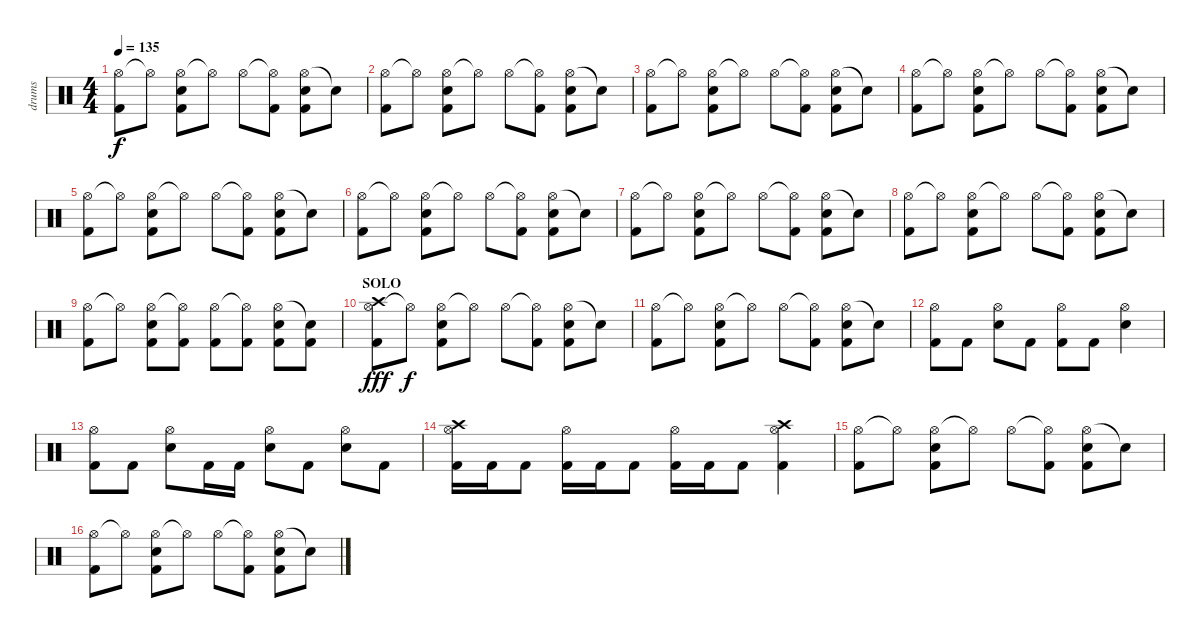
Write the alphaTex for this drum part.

\track ("drums" "drums") {instrument percussion}
\staff {score}
\articulation defaults
\ts (4 4)
\tempo 135
\clef neutral
\ks c
("Hi-Hat (open)" "Kick (hit) 2").8{dy f} "Hi-Hat (open)"{t}.8 ("Hi-Hat (open)" "Electric Snare (hit)" "Kick (hit) 2").8 "Hi-Hat (open)"{t}.8 "Hi-Hat (open)".8 ("Hi-Hat (open)"{t} "Kick (hit) 2").8 ("Hi-Hat (open)" "Electric Snare (hit)" "Kick (hit) 2").8 "Snare (hit)"{t}.8 |
("Hi-Hat (open)" "Kick (hit) 2").8 "Hi-Hat (open)"{t}.8 ("Hi-Hat (open)" "Electric Snare (hit)" "Kick (hit) 2").8 "Hi-Hat (open)"{t}.8 "Hi-Hat (open)".8 ("Hi-Hat (open)"{t} "Kick (hit) 2").8 ("Hi-Hat (open)" "Electric Snare (hit)" "Kick (hit) 2").8 "Snare (hit)"{t}.8 |
("Hi-Hat (open)" "Kick (hit) 2").8 "Hi-Hat (open)"{t}.8 ("Hi-Hat (open)" "Electric Snare (hit)" "Kick (hit) 2").8 "Hi-Hat (open)"{t}.8 "Hi-Hat (open)".8 ("Hi-Hat (open)"{t} "Kick (hit) 2").8 ("Hi-Hat (open)" "Electric Snare (hit)" "Kick (hit) 2").8 "Snare (hit)"{t}.8 |
("Hi-Hat (open)" "Kick (hit) 2").8 "Hi-Hat (open)"{t}.8 ("Hi-Hat (open)" "Electric Snare (hit)" "Kick (hit) 2").8 "Hi-Hat (open)"{t}.8 "Hi-Hat (open)".8 ("Hi-Hat (open)"{t} "Kick (hit) 2").8 ("Hi-Hat (open)" "Electric Snare (hit)" "Kick (hit) 2").8 "Snare (hit)"{t}.8 |
("Hi-Hat (open)" "Kick (hit) 2").8 "Hi-Hat (open)"{t}.8 ("Hi-Hat (open)" "Electric Snare (hit)" "Kick (hit) 2").8 "Hi-Hat (open)"{t}.8 "Hi-Hat (open)".8 ("Hi-Hat (open)"{t} "Kick (hit) 2").8 ("Hi-Hat (open)" "Electric Snare (hit)" "Kick (hit) 2").8 "Snare (hit)"{t}.8 |
("Hi-Hat (open)" "Kick (hit) 2").8 "Hi-Hat (open)"{t}.8 ("Hi-Hat (open)" "Electric Snare (hit)" "Kick (hit) 2").8 "Hi-Hat (open)"{t}.8 "Hi-Hat (open)".8 ("Hi-Hat (open)"{t} "Kick (hit) 2").8 ("Hi-Hat (open)" "Electric Snare (hit)" "Kick (hit) 2").8 "Snare (hit)"{t}.8 |
("Hi-Hat (open)" "Kick (hit) 2").8 "Hi-Hat (open)"{t}.8 ("Hi-Hat (open)" "Electric Snare (hit)" "Kick (hit) 2").8 "Hi-Hat (open)"{t}.8 "Hi-Hat (open)".8 ("Hi-Hat (open)"{t} "Kick (hit) 2").8 ("Hi-Hat (open)" "Electric Snare (hit)" "Kick (hit) 2").8 "Snare (hit)"{t}.8 |
("Hi-Hat (open)" "Kick (hit) 2").8 "Hi-Hat (open)"{t}.8 ("Hi-Hat (open)" "Electric Snare (hit)" "Kick (hit) 2").8 "Hi-Hat (open)"{t}.8 "Hi-Hat (open)".8 ("Hi-Hat (open)"{t} "Kick (hit) 2").8 ("Hi-Hat (open)" "Electric Snare (hit)" "Kick (hit) 2").8 "Snare (hit)"{t}.8 |
("Hi-Hat (open)" "Kick (hit) 2").8 "Hi-Hat (open)"{t}.8 ("Hi-Hat (open)" "Electric Snare (hit)" "Kick (hit) 2").8 ("Hi-Hat (open)"{t} "Kick (hit) 2").8 ("Hi-Hat (open)" "Kick (hit) 2").8 ("Hi-Hat (open)"{t} "Kick (hit) 2").8 ("Hi-Hat (open)" "Electric Snare (hit)" "Kick (hit) 2").8 ("Snare (hit)"{t} "Kick (hit) 2").8 |
\section ("" "SOLO")
("Hi-Hat (open)" "Crash high (hit)" "Kick (hit) 2").8{dy fff} "Hi-Hat (open)"{t}.8{dy f} ("Hi-Hat (open)" "Electric Snare (hit)" "Kick (hit) 2").8 "Hi-Hat (open)"{t}.8 "Hi-Hat (open)".8 ("Hi-Hat (open)"{t} "Kick (hit) 2").8 ("Hi-Hat (open)" "Electric Snare (hit)" "Kick (hit) 2").8 "Snare (hit)"{t}.8 |
("Hi-Hat (open)" "Kick (hit) 2").8 "Hi-Hat (open)"{t}.8 ("Hi-Hat (open)" "Electric Snare (hit)" "Kick (hit) 2").8 "Hi-Hat (open)"{t}.8 "Hi-Hat (open)".8 ("Hi-Hat (open)"{t} "Kick (hit) 2").8 ("Hi-Hat (open)" "Electric Snare (hit)" "Kick (hit) 2").8 "Snare (hit)"{t}.8 |
("Kick (hit) 2" "Hi-Hat (open)").8 "Kick (hit) 2".8 ("Electric Snare (hit)" "Hi-Hat (open)").8 "Kick (hit) 2".8 ("Kick (hit) 2" "Hi-Hat (open)").8 "Kick (hit) 2".8 ("Electric Snare (hit)" "Hi-Hat (open)").4 |
("Kick (hit) 2" "Hi-Hat (open)").8 "Kick (hit) 2".8 ("Electric Snare (hit)" "Hi-Hat (open)").8 "Kick (hit) 2".16 "Kick (hit) 2".16 ("Electric Snare (hit)" "Hi-Hat (open)").8 "Kick (hit) 2".8 ("Electric Snare (hit)" "Hi-Hat (open)").8 "Kick (hit) 2".8 |
("Kick (hit) 2" "Crash high (hit)" "Hi-Hat (open)").16 "Kick (hit) 2".16 "Kick (hit) 2".8 ("Kick (hit) 2" "Hi-Hat (open)").16 "Kick (hit) 2".16 "Kick (hit) 2".8 ("Kick (hit) 2" "Hi-Hat (open)").16 "Kick (hit) 2".16 "Kick (hit) 2".8 ("Kick (hit) 2" "Crash high (hit)" "Hi-Hat (open)").4 |
("Hi-Hat (open)" "Kick (hit) 2").8 "Hi-Hat (open)"{t}.8 ("Hi-Hat (open)" "Electric Snare (hit)" "Kick (hit) 2").8 "Hi-Hat (open)"{t}.8 "Hi-Hat (open)".8 ("Hi-Hat (open)"{t} "Kick (hit) 2").8 ("Hi-Hat (open)" "Electric Snare (hit)" "Kick (hit) 2").8 "Snare (hit)"{t}.8 |
("Hi-Hat (open)" "Kick (hit) 2").8 "Hi-Hat (open)"{t}.8 ("Hi-Hat (open)" "Electric Snare (hit)" "Kick (hit) 2").8 "Hi-Hat (open)"{t}.8 "Hi-Hat (open)".8 ("Hi-Hat (open)"{t} "Kick (hit) 2").8 ("Hi-Hat (open)" "Electric Snare (hit)" "Kick (hit) 2").8 "Snare (hit)"{t}.8
